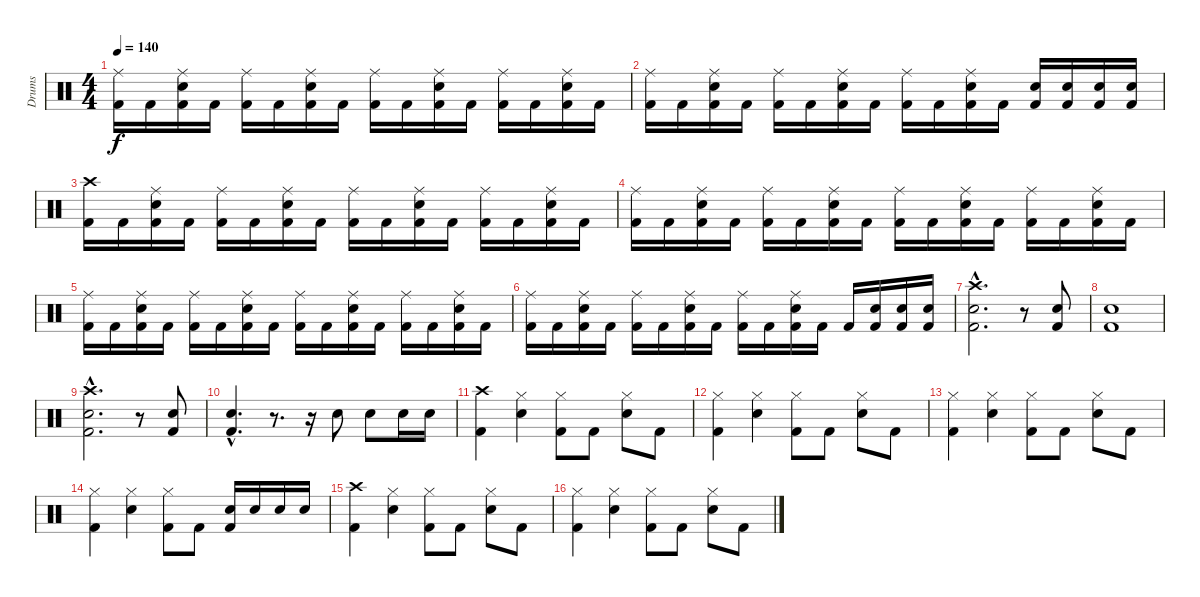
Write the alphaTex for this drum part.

\track ("Drums" "Drums") {instrument percussion}
\staff {score}
\articulation defaults
\ts (4 4)
\tempo 140
\clef neutral
\ks c
("Ride (middle)" "Kick (hit) 2").16{dy f} "Kick (hit) 2".16 ("Ride (middle)" "Electric Snare (hit)" "Kick (hit) 2").16 "Kick (hit) 2".16 ("Ride (middle)" "Kick (hit) 2").16 "Kick (hit) 2".16 ("Ride (middle)" "Electric Snare (hit)" "Kick (hit) 2").16 "Kick (hit) 2".16 ("Ride (middle)" "Kick (hit) 2").16 "Kick (hit) 2".16 ("Ride (middle)" "Electric Snare (hit)" "Kick (hit) 2").16 "Kick (hit) 2".16 ("Ride (middle)" "Kick (hit) 2").16 "Kick (hit) 2".16 ("Ride (middle)" "Electric Snare (hit)" "Kick (hit) 2").16 "Kick (hit) 2".16 |
("Ride (middle)" "Kick (hit) 2").16 "Kick (hit) 2".16 ("Ride (middle)" "Electric Snare (hit)" "Kick (hit) 2").16 "Kick (hit) 2".16 ("Ride (middle)" "Kick (hit) 2").16 "Kick (hit) 2".16 ("Ride (middle)" "Electric Snare (hit)" "Kick (hit) 2").16 "Kick (hit) 2".16 ("Ride (middle)" "Kick (hit) 2").16 "Kick (hit) 2".16 ("Ride (middle)" "Electric Snare (hit)" "Kick (hit) 2").16 "Kick (hit) 2".16 ("Electric Snare (hit)" "Kick (hit) 2").16 ("Electric Snare (hit)" "Kick (hit) 2").16 ("Electric Snare (hit)" "Kick (hit) 2").16 ("Electric Snare (hit)" "Kick (hit) 2").16 |
("Crash high (hit)" "Kick (hit) 2").16 "Kick (hit) 2".16 ("Ride (middle)" "Electric Snare (hit)" "Kick (hit) 2").16 "Kick (hit) 2".16 ("Ride (middle)" "Kick (hit) 2").16 "Kick (hit) 2".16 ("Ride (middle)" "Electric Snare (hit)" "Kick (hit) 2").16 "Kick (hit) 2".16 ("Ride (middle)" "Kick (hit) 2").16 "Kick (hit) 2".16 ("Ride (middle)" "Electric Snare (hit)" "Kick (hit) 2").16 "Kick (hit) 2".16 ("Ride (middle)" "Kick (hit) 2").16 "Kick (hit) 2".16 ("Ride (middle)" "Electric Snare (hit)" "Kick (hit) 2").16 "Kick (hit) 2".16 |
("Ride (middle)" "Kick (hit) 2").16 "Kick (hit) 2".16 ("Ride (middle)" "Electric Snare (hit)" "Kick (hit) 2").16 "Kick (hit) 2".16 ("Ride (middle)" "Kick (hit) 2").16 "Kick (hit) 2".16 ("Ride (middle)" "Electric Snare (hit)" "Kick (hit) 2").16 "Kick (hit) 2".16 ("Ride (middle)" "Kick (hit) 2").16 "Kick (hit) 2".16 ("Ride (middle)" "Electric Snare (hit)" "Kick (hit) 2").16 "Kick (hit) 2".16 ("Ride (middle)" "Kick (hit) 2").16 "Kick (hit) 2".16 ("Ride (middle)" "Electric Snare (hit)" "Kick (hit) 2").16 "Kick (hit) 2".16 |
("Ride (middle)" "Kick (hit) 2").16 "Kick (hit) 2".16 ("Ride (middle)" "Electric Snare (hit)" "Kick (hit) 2").16 "Kick (hit) 2".16 ("Ride (middle)" "Kick (hit) 2").16 "Kick (hit) 2".16 ("Ride (middle)" "Electric Snare (hit)" "Kick (hit) 2").16 "Kick (hit) 2".16 ("Ride (middle)" "Kick (hit) 2").16 "Kick (hit) 2".16 ("Ride (middle)" "Electric Snare (hit)" "Kick (hit) 2").16 "Kick (hit) 2".16 ("Ride (middle)" "Kick (hit) 2").16 "Kick (hit) 2".16 ("Ride (middle)" "Electric Snare (hit)" "Kick (hit) 2").16 "Kick (hit) 2".16 |
("Ride (middle)" "Kick (hit) 2").16 "Kick (hit) 2".16 ("Ride (middle)" "Electric Snare (hit)" "Kick (hit) 2").16 "Kick (hit) 2".16 ("Ride (middle)" "Kick (hit) 2").16 "Kick (hit) 2".16 ("Ride (middle)" "Electric Snare (hit)" "Kick (hit) 2").16 "Kick (hit) 2".16 ("Ride (middle)" "Kick (hit) 2").16 "Kick (hit) 2".16 ("Ride (middle)" "Electric Snare (hit)" "Kick (hit) 2").16 "Kick (hit) 2".16 "Kick (hit) 2".16 ("Electric Snare (hit)" "Kick (hit) 2").16 ("Electric Snare (hit)" "Kick (hit) 2").16 ("Electric Snare (hit)" "Kick (hit) 2").16 |
("Crash high (hit)"{hac} "Electric Snare (hit)"{hac} "Kick (hit) 2"{hac}).2{d} r.8 ("Electric Snare (hit)" "Kick (hit) 2").8 |
("Electric Snare (hit)" "Kick (hit) 2").1 |
("Crash high (hit)"{hac} "Electric Snare (hit)"{hac} "Kick (hit) 2"{hac}).2{d} r.8 ("Electric Snare (hit)" "Kick (hit) 2").8 |
("Electric Snare (hit)"{hac} "Kick (hit) 2"{hac}).4{d} r.8{d} r.16 "Electric Snare (hit)".8 "Electric Snare (hit)".8 "Electric Snare (hit)".16 "Electric Snare (hit)".16 |
("Crash high (hit)" "Kick (hit) 2").4 ("Hi-Hat (closed)" "Electric Snare (hit)").4 ("Hi-Hat (closed)" "Kick (hit) 2").8 "Kick (hit) 2".8 ("Hi-Hat (closed)" "Electric Snare (hit)").8 "Kick (hit) 2".8 |
("Hi-Hat (closed)" "Kick (hit) 2").4 ("Hi-Hat (closed)" "Electric Snare (hit)").4 ("Hi-Hat (closed)" "Kick (hit) 2").8 "Kick (hit) 2".8 ("Hi-Hat (closed)" "Electric Snare (hit)").8 "Kick (hit) 2".8 |
("Hi-Hat (closed)" "Kick (hit) 2").4 ("Hi-Hat (closed)" "Electric Snare (hit)").4 ("Hi-Hat (closed)" "Kick (hit) 2").8 "Kick (hit) 2".8 ("Hi-Hat (closed)" "Electric Snare (hit)").8 "Kick (hit) 2".8 |
("Hi-Hat (closed)" "Kick (hit) 2").4 ("Hi-Hat (closed)" "Electric Snare (hit)").4 ("Hi-Hat (closed)" "Kick (hit) 2").8 "Kick (hit) 2".8 ("Electric Snare (hit)" "Kick (hit) 2").16 "Electric Snare (hit)".16 "Electric Snare (hit)".16 "Electric Snare (hit)".16 |
("Crash high (hit)" "Kick (hit) 2").4 ("Hi-Hat (closed)" "Electric Snare (hit)").4 ("Hi-Hat (closed)" "Kick (hit) 2").8 "Kick (hit) 2".8 ("Hi-Hat (closed)" "Electric Snare (hit)").8 "Kick (hit) 2".8 |
("Hi-Hat (closed)" "Kick (hit) 2").4 ("Hi-Hat (closed)" "Electric Snare (hit)").4 ("Hi-Hat (closed)" "Kick (hit) 2").8 "Kick (hit) 2".8 ("Hi-Hat (closed)" "Electric Snare (hit)").8 "Kick (hit) 2".8
